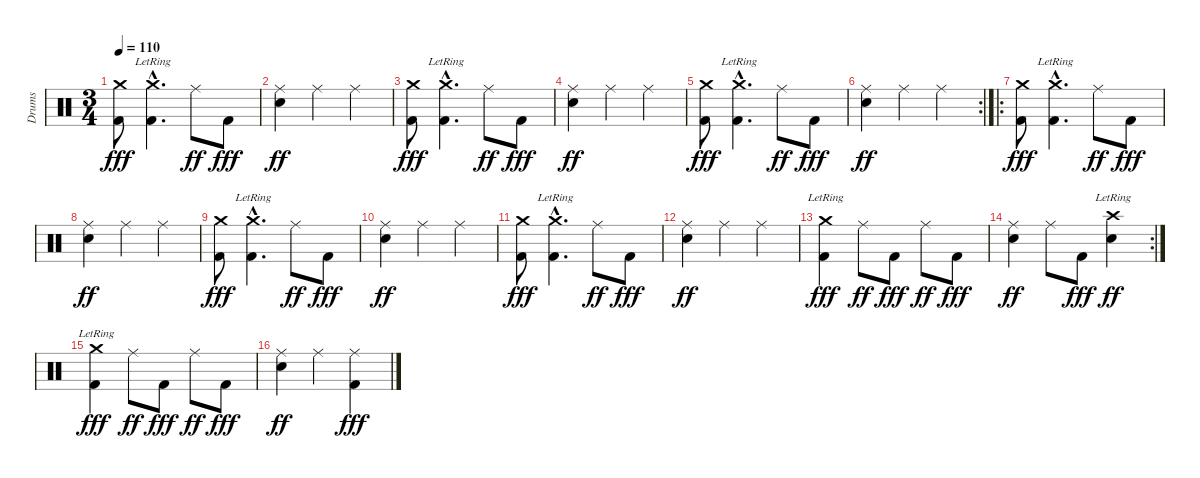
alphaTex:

\track ("Drums" "Drums") {instrument percussion}
\staff {score}
\articulation defaults
\ts (3 4)
\tempo 110
\clef neutral
\ks c
("Crash medium (hit)" "Kick (hit) 2").8{dy fff} ("Crash medium (hit)"{hac lr} "Kick (hit) 2"{hac}).4{d} "Ride (middle)".8{dy ff} "Kick (hit) 2".8{dy fff} |
("Ride (middle)" "Snare (hit) 2").4{dy ff} "Ride (middle)".4 "Ride (middle)".4 |
("Crash medium (hit)" "Kick (hit) 2").8{dy fff} ("Crash medium (hit)"{hac lr} "Kick (hit) 2"{hac}).4{d} "Ride (middle)".8{dy ff} "Kick (hit) 2".8{dy fff} |
("Ride (middle)" "Snare (hit) 2").4{dy ff} "Ride (middle)".4 "Ride (middle)".4 |
("Crash medium (hit)" "Kick (hit) 2").8{dy fff} ("Crash medium (hit)"{hac lr} "Kick (hit) 2"{hac}).4{d} "Ride (middle)".8{dy ff} "Kick (hit) 2".8{dy fff} |
\rc 2
("Ride (middle)" "Snare (hit) 2").4{dy ff} "Ride (middle)".4 "Ride (middle)".4 |
\ro
("Crash medium (hit)" "Kick (hit) 2").8{dy fff} ("Crash medium (hit)"{hac lr} "Kick (hit) 2"{hac}).4{d} "Ride (middle)".8{dy ff} "Kick (hit) 2".8{dy fff} |
("Ride (middle)" "Snare (hit) 2").4{dy ff} "Ride (middle)".4 "Ride (middle)".4 |
("Crash medium (hit)" "Kick (hit) 2").8{dy fff} ("Crash medium (hit)"{hac lr} "Kick (hit) 2"{hac}).4{d} "Ride (middle)".8{dy ff} "Kick (hit) 2".8{dy fff} |
("Ride (middle)" "Snare (hit) 2").4{dy ff} "Ride (middle)".4 "Ride (middle)".4 |
("Crash medium (hit)" "Kick (hit) 2").8{dy fff} ("Crash medium (hit)"{hac lr} "Kick (hit) 2"{hac}).4{d} "Ride (middle)".8{dy ff} "Kick (hit) 2".8{dy fff} |
("Ride (middle)" "Snare (hit) 2").4{dy ff} "Ride (middle)".4 "Ride (middle)".4 |
("Crash medium (hit)"{lr} "Kick (hit) 2").4{dy fff} "Ride (middle)".8{dy ff} "Kick (hit) 2".8{dy fff} "Ride (middle)".8{dy ff} "Kick (hit) 2".8{dy fff} |
\rc 2
("Ride (middle)" "Snare (hit) 2").4{dy ff} "Ride (middle)".8 "Kick (hit) 2".8{dy fff} ("Crash high (hit)"{lr} "Snare (hit) 2").4{dy ff} |
("Crash medium (hit)"{lr} "Kick (hit) 2").4{dy fff} "Ride (middle)".8{dy ff} "Kick (hit) 2".8{dy fff} "Ride (middle)".8{dy ff} "Kick (hit) 2".8{dy fff} |
("Ride (middle)" "Snare (hit) 2").4{dy ff} "Ride (middle)".4 ("Ride (middle)" "Kick (hit) 2").4{dy fff}
